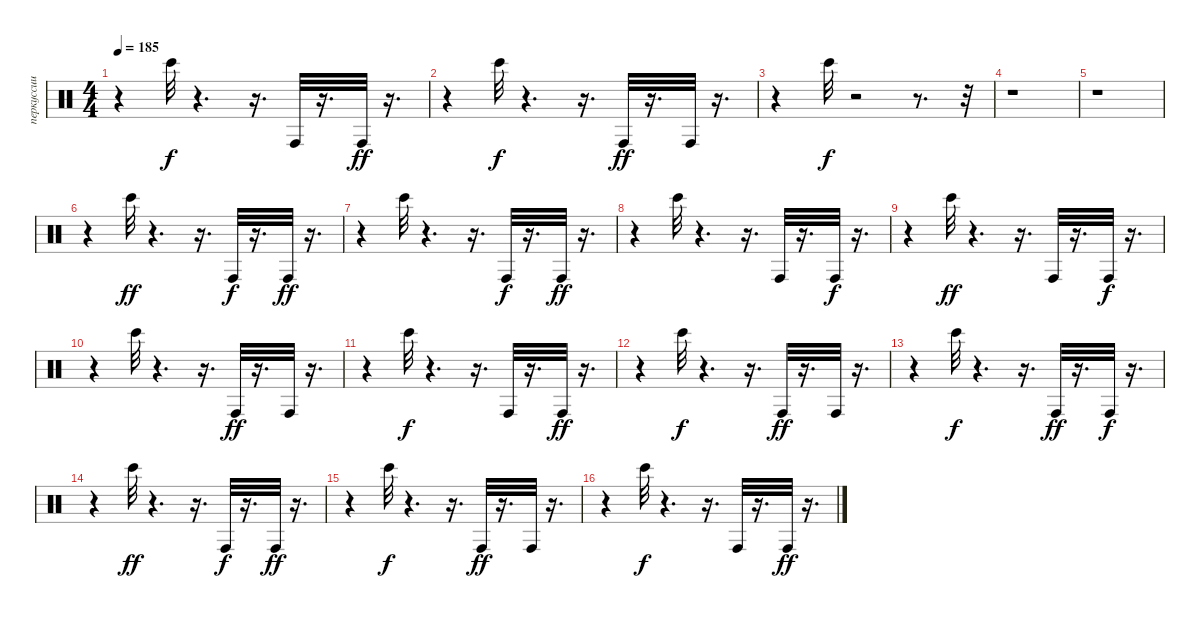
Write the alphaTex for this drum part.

\track ("перкуссии" "перкуссии") {instrument percussion}
\staff {score}
\articulation defaults
\ts (4 4)
\tempo 185
\clef neutral
\ks c
r.4{dy f} "Bongo High (hit)".32 r.4{d} r.16{d} "Conga high (hit)".32 r.16{d} "Conga high (hit)".32{dy ff} r.16{d} |
r.4 "Bongo High (hit)".32{dy f} r.4{d} r.16{d} "Conga high (hit)".32{dy ff} r.16{d} "Conga high (hit)".32 r.16{d} |
r.4 "Bongo High (hit)".32{dy f} r.2 r.8{d} r.32 |
r.1 |
r.1 |
r.4 "Bongo High (hit)".32{dy ff} r.4{d} r.16{d} "Conga high (hit)".32{dy f} r.16{d} "Conga high (hit)".32{dy ff} r.16{d} |
r.4 "Bongo High (hit)".32 r.4{d} r.16{d} "Conga high (hit)".32{dy f} r.16{d} "Conga high (hit)".32{dy ff} r.16{d} |
r.4 "Bongo High (hit)".32 r.4{d} r.16{d} "Conga high (hit)".32 r.16{d} "Conga high (hit)".32{dy f} r.16{d} |
r.4 "Bongo High (hit)".32{dy ff} r.4{d} r.16{d} "Conga high (hit)".32 r.16{d} "Conga high (hit)".32{dy f} r.16{d} |
r.4 "Bongo High (hit)".32 r.4{d} r.16{d} "Conga high (hit)".32{dy ff} r.16{d} "Conga high (hit)".32 r.16{d} |
r.4 "Bongo High (hit)".32{dy f} r.4{d} r.16{d} "Conga high (hit)".32 r.16{d} "Conga high (hit)".32{dy ff} r.16{d} |
r.4 "Bongo High (hit)".32{dy f} r.4{d} r.16{d} "Conga high (hit)".32{dy ff} r.16{d} "Conga high (hit)".32 r.16{d} |
r.4 "Bongo High (hit)".32{dy f} r.4{d} r.16{d} "Conga high (hit)".32{dy ff} r.16{d} "Conga high (hit)".32{dy f} r.16{d} |
r.4 "Bongo High (hit)".32{dy ff} r.4{d} r.16{d} "Conga high (hit)".32{dy f} r.16{d} "Conga high (hit)".32{dy ff} r.16{d} |
r.4 "Bongo High (hit)".32{dy f} r.4{d} r.16{d} "Conga high (hit)".32{dy ff} r.16{d} "Conga high (hit)".32 r.16{d} |
r.4 "Bongo High (hit)".32{dy f} r.4{d} r.16{d} "Conga high (hit)".32 r.16{d} "Conga high (hit)".32{dy ff} r.16{d}
